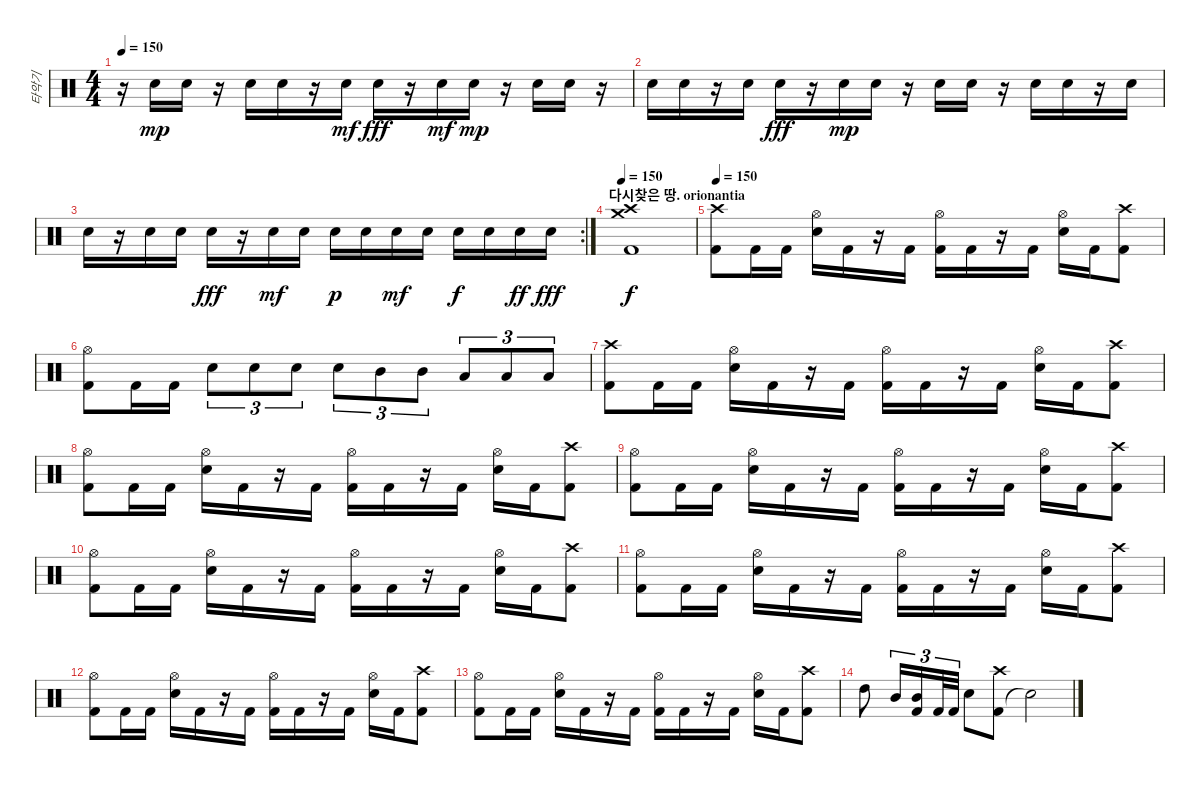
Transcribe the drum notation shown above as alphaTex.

\track ("타악기" "타악기") {instrument percussion}
\staff {score}
\articulation defaults
\ts (4 4)
\tempo 150
\clef neutral
\ks c
r.16{dy mp} "Snare (hit) 2".16 "Snare (hit) 2".16 r.16 "Snare (hit) 2".16 "Snare (hit) 2".16 r.16 "Snare (hit) 2".16{dy mf} "Snare (hit) 2".16{dy fff} r.16 "Snare (hit) 2".16{dy mf} "Snare (hit) 2".16{dy mp} r.16 "Snare (hit) 2".16 "Snare (hit) 2".16 r.16 |
"Snare (hit) 2".16 "Snare (hit) 2".16 r.16 "Snare (hit) 2".16 "Snare (hit) 2".16{dy fff} r.16 "Snare (hit) 2".16{dy mp} "Snare (hit) 2".16 r.16 "Snare (hit) 2".16 "Snare (hit) 2".16 r.16 "Snare (hit) 2".16 "Snare (hit) 2".16 r.16 "Snare (hit) 2".16 |
\rc 2 "Snare (hit) 2".16
r.16 "Snare (hit) 2".16 "Snare (hit) 2".16 "Snare (hit) 2".16{dy fff} r.16 "Snare (hit) 2".16{dy mf} "Snare (hit) 2".16 "Snare (hit) 2".16{dy p} "Snare (hit) 2".16 "Snare (hit) 2".16{dy mf} "Snare (hit) 2".16 "Snare (hit) 2".16{dy f} "Snare (hit) 2".16 "Snare (hit) 2".16{dy ff} "Snare (hit) 2".16{dy fff} |
\section ("" "다시찾은 땅. orionantia")
\tempo 150
("Kick (hit) 2" "Crash high (hit)" "Crash medium (hit)").1{dy f} |
\tempo 150
("Crash high (hit)" "Kick (hit) 2").8 "Kick (hit) 2".16 "Kick (hit) 2".16 ("Hi-Hat (open)" "Electric Snare (hit)").16 "Kick (hit) 2".16 r.16 "Kick (hit) 2".16 ("Hi-Hat (open)" "Kick (hit) 2").16 "Kick (hit) 2".16 r.16 "Kick (hit) 2".16 ("Hi-Hat (open)" "Electric Snare (hit)").16 "Kick (hit) 2".16 ("Kick (hit) 2" "Crash high (hit)").8 |
("Hi-Hat (open)" "Kick (hit) 2").8 "Kick (hit) 2".16 "Kick (hit) 2".16 "Snare (hit) 2".8{tu (3 2)} "Snare (hit) 2".8{tu (3 2)} "Snare (hit) 2".8{tu (3 2)} "Snare (hit) 2".8{tu (3 2)} "Mid Tom (hit)".8{tu (3 2)} "Mid Tom (hit)".8{tu (3 2)} "Low Tom (hit)".8{tu (3 2)} "Low Tom (hit)".8{tu (3 2)} "Low Tom (hit)".8{tu (3 2)} |
("Crash high (hit)" "Kick (hit) 2").8 "Kick (hit) 2".16 "Kick (hit) 2".16 ("Hi-Hat (open)" "Electric Snare (hit)").16 "Kick (hit) 2".16 r.16 "Kick (hit) 2".16 ("Hi-Hat (open)" "Kick (hit) 2").16 "Kick (hit) 2".16 r.16 "Kick (hit) 2".16 ("Hi-Hat (open)" "Electric Snare (hit)").16 "Kick (hit) 2".16 ("Kick (hit) 2" "Crash high (hit)").8 |
("Hi-Hat (open)" "Kick (hit) 2").8 "Kick (hit) 2".16 "Kick (hit) 2".16 ("Hi-Hat (open)" "Electric Snare (hit)").16 "Kick (hit) 2".16 r.16 "Kick (hit) 2".16 ("Hi-Hat (open)" "Kick (hit) 2").16 "Kick (hit) 2".16 r.16 "Kick (hit) 2".16 ("Hi-Hat (open)" "Electric Snare (hit)").16 "Kick (hit) 2".16 ("Kick (hit) 2" "Crash high (hit)").8 |
("Hi-Hat (open)" "Kick (hit) 2").8 "Kick (hit) 2".16 "Kick (hit) 2".16 ("Hi-Hat (open)" "Electric Snare (hit)").16 "Kick (hit) 2".16 r.16 "Kick (hit) 2".16 ("Hi-Hat (open)" "Kick (hit) 2").16 "Kick (hit) 2".16 r.16 "Kick (hit) 2".16 ("Hi-Hat (open)" "Electric Snare (hit)").16 "Kick (hit) 2".16 ("Kick (hit) 2" "Crash high (hit)").8 |
("Hi-Hat (open)" "Kick (hit) 2").8 "Kick (hit) 2".16 "Kick (hit) 2".16 ("Hi-Hat (open)" "Electric Snare (hit)").16 "Kick (hit) 2".16 r.16 "Kick (hit) 2".16 ("Hi-Hat (open)" "Kick (hit) 2").16 "Kick (hit) 2".16 r.16 "Kick (hit) 2".16 ("Hi-Hat (open)" "Electric Snare (hit)").16 "Kick (hit) 2".16 ("Kick (hit) 2" "Crash high (hit)").8 |
("Hi-Hat (open)" "Kick (hit) 2").8 "Kick (hit) 2".16 "Kick (hit) 2".16 ("Hi-Hat (open)" "Electric Snare (hit)").16 "Kick (hit) 2".16 r.16 "Kick (hit) 2".16 ("Hi-Hat (open)" "Kick (hit) 2").16 "Kick (hit) 2".16 r.16 "Kick (hit) 2".16 ("Hi-Hat (open)" "Electric Snare (hit)").16 "Kick (hit) 2".16 ("Kick (hit) 2" "Crash high (hit)").8 |
("Hi-Hat (open)" "Kick (hit) 2").8 "Kick (hit) 2".16 "Kick (hit) 2".16 ("Hi-Hat (open)" "Electric Snare (hit)").16 "Kick (hit) 2".16 r.16 "Kick (hit) 2".16 ("Hi-Hat (open)" "Kick (hit) 2").16 "Kick (hit) 2".16 r.16 "Kick (hit) 2".16 ("Hi-Hat (open)" "Electric Snare (hit)").16 "Kick (hit) 2".16 ("Kick (hit) 2" "Crash high (hit)").8 |
("Hi-Hat (open)" "Kick (hit) 2").8 "Kick (hit) 2".16 "Kick (hit) 2".16 ("Hi-Hat (open)" "Electric Snare (hit)").16 "Kick (hit) 2".16 r.16 "Kick (hit) 2".16 ("Hi-Hat (open)" "Kick (hit) 2").16 "Kick (hit) 2".16 r.16 "Kick (hit) 2".16 ("Hi-Hat (open)" "Electric Snare (hit)").16 "Kick (hit) 2".16 ("Kick (hit) 2" "Crash high (hit)").8 |
"High Tom (hit)".8 "Mid Tom (hit)".16{tu (3 2)} ("Mid Tom (hit)" "Kick (hit) 2").16{tu (3 2)} "Kick (hit) 2".32{tu (3 2)} "Kick (hit) 2".32{tu (3 2)} "Snare (hit) 2".8 ("Kick (hit) 2" "Crash high (hit)").8 "Snare (hit)"{t}.2
